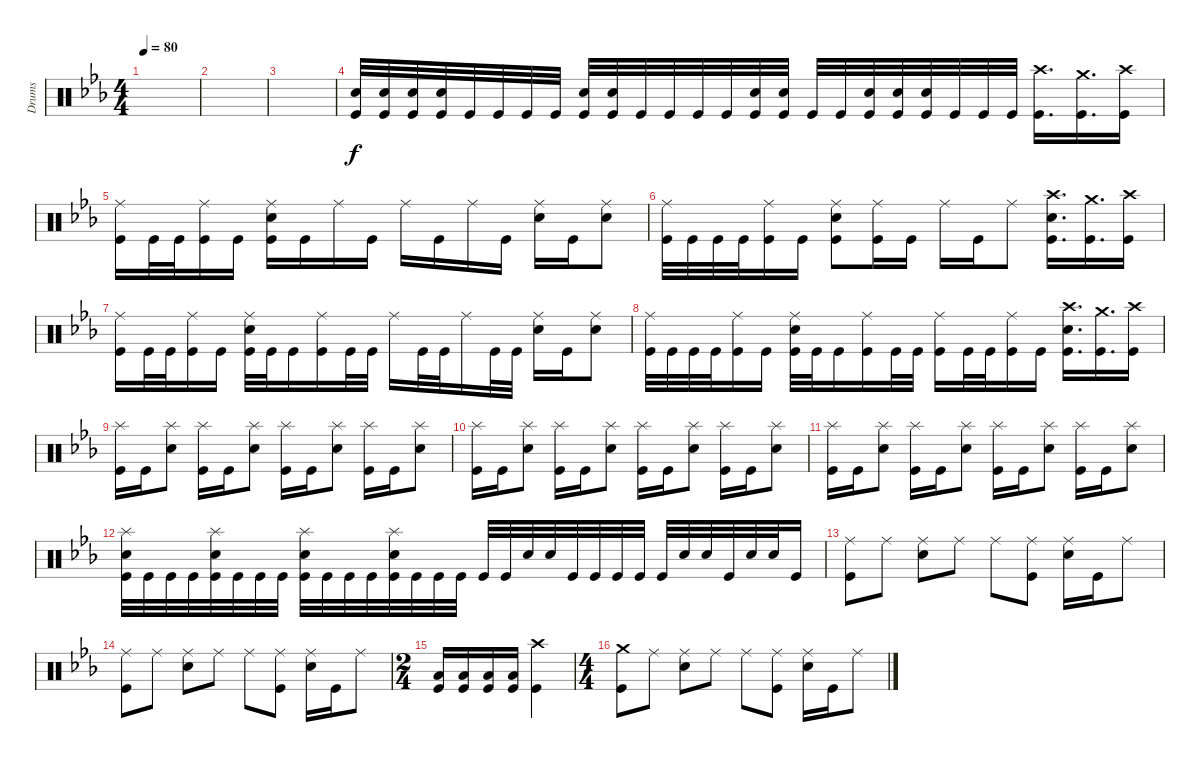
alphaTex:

\track ("Drums" "Drums") {instrument percussion}
\staff {score}
\articulation defaults
\ts (4 4)
\tempo 80
\clef neutral
\ks eb
|
|
|
("Electric Snare (hit)" "Kick (hit)").32 ("Electric Snare (hit)" "Kick (hit)").32 ("Electric Snare (hit)" "Kick (hit)").32 ("Electric Snare (hit)" "Kick (hit)").32 "Kick (hit)".32 "Kick (hit)".32 "Kick (hit)".32 "Kick (hit)".32 ("Electric Snare (hit)" "Kick (hit)").32 ("Electric Snare (hit)" "Kick (hit)").32 "Kick (hit)".32 "Kick (hit)".32 "Kick (hit)".32 "Kick (hit)".32 ("Electric Snare (hit)" "Kick (hit)").32 ("Electric Snare (hit)" "Kick (hit)").32 "Kick (hit)".32 "Kick (hit)".32 ("Electric Snare (hit)" "Kick (hit)").32 ("Electric Snare (hit)" "Kick (hit)").32 ("Electric Snare (hit)" "Kick (hit)").32 "Kick (hit)".32 "Kick (hit)".32 "Kick (hit)".32 ("Crash high (hit)" "Kick (hit)").16{d} ("Crash medium (hit)" "Kick (hit)").16{d} ("Crash high (hit)" "Kick (hit)").16 |
("Ride (middle)" "Kick (hit)").16 "Kick (hit)".32 "Kick (hit)".32 ("Ride (middle)" "Kick (hit)").16 "Kick (hit)".16 ("Ride (middle)" "Electric Snare (hit)" "Kick (hit)").16 "Kick (hit)".16 "Ride (middle)".16 "Kick (hit)".16 "Ride (middle)".16 "Kick (hit)".16 "Ride (middle)".16 "Kick (hit)".16 ("Ride (middle)" "Electric Snare (hit)").16 "Kick (hit)".16 ("Ride (middle)" "Electric Snare (hit)").8 |
("Ride (middle)" "Kick (hit)").32 "Kick (hit)".32 "Kick (hit)".32 "Kick (hit)".32 ("Ride (middle)" "Kick (hit)").16 "Kick (hit)".16 ("Ride (middle)" "Electric Snare (hit)" "Kick (hit)").8 ("Ride (middle)" "Kick (hit)").16 "Kick (hit)".16 "Ride (middle)".16 "Kick (hit)".16 "Ride (middle)".8 ("Crash high (hit)" "Electric Snare (hit)" "Kick (hit)").16{d} ("Crash medium (hit)" "Kick (hit)").16{d} ("Crash high (hit)" "Kick (hit)").16 |
("Ride (middle)" "Kick (hit)").16 "Kick (hit)".32 "Kick (hit)".32 ("Ride (middle)" "Kick (hit)").16 "Kick (hit)".16 ("Ride (middle)" "Electric Snare (hit)" "Kick (hit)").32 "Kick (hit)".32 "Kick (hit)".16 ("Ride (middle)" "Kick (hit)").16 "Kick (hit)".32 "Kick (hit)".32 "Ride (middle)".16 "Kick (hit)".32 "Kick (hit)".32 "Ride (middle)".16 "Kick (hit)".32 "Kick (hit)".32 ("Ride (middle)" "Electric Snare (hit)").16 "Kick (hit)".16 ("Ride (middle)" "Electric Snare (hit)").8 |
("Ride (middle)" "Kick (hit)").32 "Kick (hit)".32 "Kick (hit)".32 "Kick (hit)".32 ("Ride (middle)" "Kick (hit)").16 "Kick (hit)".16 ("Ride (middle)" "Electric Snare (hit)" "Kick (hit)").32 "Kick (hit)".32 "Kick (hit)".16 ("Ride (middle)" "Kick (hit)").16 "Kick (hit)".32 "Kick (hit)".32 ("Ride (middle)" "Kick (hit)").16 "Kick (hit)".32 "Kick (hit)".32 ("Ride (middle)" "Kick (hit)").16 "Kick (hit)".16 ("Crash high (hit)" "Electric Snare (hit)" "Kick (hit)").16{d} ("Crash medium (hit)" "Kick (hit)").16{d} ("Crash high (hit)" "Kick (hit)").16 |
("Splash (hit)" "Kick (hit)").16 "Kick (hit)".16 ("Splash (hit)" "Electric Snare (hit)").8 ("Splash (hit)" "Kick (hit)").16 "Kick (hit)".16 ("Splash (hit)" "Electric Snare (hit)").8 ("Splash (hit)" "Kick (hit)").16 "Kick (hit)".16 ("Splash (hit)" "Electric Snare (hit)").8 ("Splash (hit)" "Kick (hit)").16 "Kick (hit)".16 ("Splash (hit)" "Electric Snare (hit)").8 |
("Splash (hit)" "Kick (hit)").16 "Kick (hit)".16 ("Splash (hit)" "Electric Snare (hit)").8 ("Splash (hit)" "Kick (hit)").16 "Kick (hit)".16 ("Splash (hit)" "Electric Snare (hit)").8 ("Splash (hit)" "Kick (hit)").16 "Kick (hit)".16 ("Splash (hit)" "Electric Snare (hit)").8 ("Splash (hit)" "Kick (hit)").16 "Kick (hit)".16 ("Splash (hit)" "Electric Snare (hit)").8 |
("Splash (hit)" "Kick (hit)").16 "Kick (hit)".16 ("Splash (hit)" "Electric Snare (hit)").8 ("Splash (hit)" "Kick (hit)").16 "Kick (hit)".16 ("Splash (hit)" "Electric Snare (hit)").8 ("Splash (hit)" "Kick (hit)").16 "Kick (hit)".16 ("Splash (hit)" "Electric Snare (hit)").8 ("Splash (hit)" "Kick (hit)").16 "Kick (hit)".16 ("Splash (hit)" "Electric Snare (hit)").8 |
("Splash (hit)" "Electric Snare (hit)" "Kick (hit)").32 "Kick (hit)".32 "Kick (hit)".32 "Kick (hit)".32 ("Splash (hit)" "Electric Snare (hit)" "Kick (hit)").32 "Kick (hit)".32 "Kick (hit)".32 "Kick (hit)".32 ("Splash (hit)" "Electric Snare (hit)" "Kick (hit)").32 "Kick (hit)".32 "Kick (hit)".32 "Kick (hit)".32 ("Splash (hit)" "Electric Snare (hit)" "Kick (hit)").32 "Kick (hit)".32 "Kick (hit)".32 "Kick (hit)".32 "Kick (hit)".32 "Kick (hit)".32 "Electric Snare (hit)".32 "Electric Snare (hit)".32 "Kick (hit)".32 "Kick (hit)".32 "Kick (hit)".32 "Kick (hit)".32 "Kick (hit)".32 "Electric Snare (hit)".32 "Electric Snare (hit)".32 "Kick (hit)".32 "Electric Snare (hit)".32 "Electric Snare (hit)".32 "Kick (hit)".16 |
("Ride (middle)" "Kick (hit)").8 "Ride (middle)".8 ("Ride (middle)" "Electric Snare (hit)").8 "Ride (middle)".8 "Ride (middle)".8 ("Ride (middle)" "Kick (hit)").8 ("Ride (middle)" "Electric Snare (hit)").16 "Kick (hit)".16 "Ride (middle)".8 |
("Ride (middle)" "Kick (hit)").8 "Ride (middle)".8 ("Ride (middle)" "Electric Snare (hit)").8 "Ride (middle)".8 "Ride (middle)".8 ("Ride (middle)" "Kick (hit)").8 ("Ride (middle)" "Electric Snare (hit)").16 "Kick (hit)".16 "Ride (middle)".8 |
\ts (2 4)
("Low Floor Tom (hit)" "Kick (hit)").16 ("Low Tom (hit)" "Kick (hit)").16 ("Low Floor Tom (hit)" "Kick (hit)").16 ("Low Tom (hit)" "Kick (hit)").16 ("Crash high (hit)" "Kick (hit)").4 |
\ts (4 4)
("Crash medium (hit)" "Kick (hit)").8 "Ride (middle)".8 ("Ride (middle)" "Electric Snare (hit)").8 "Ride (middle)".8 "Ride (middle)".8 ("Ride (middle)" "Kick (hit)").8 ("Ride (middle)" "Electric Snare (hit)").16 "Kick (hit)".16 "Ride (middle)".8
